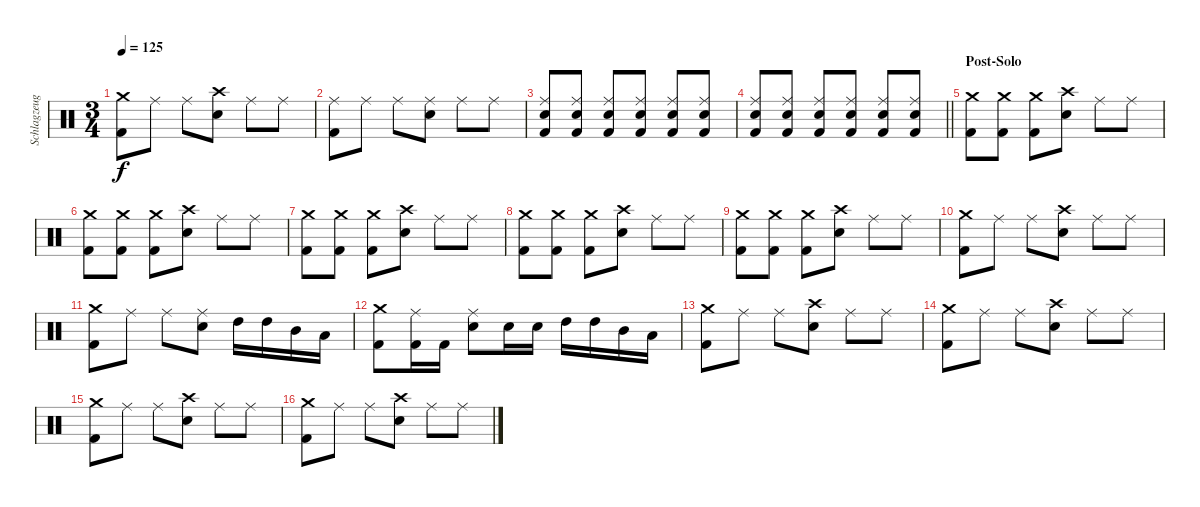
\track ("Schlagzeug" "Schlagzeug") {instrument percussion}
\staff {score}
\articulation defaults
\ts (3 4)
\tempo 125
\clef neutral
\ks c
("Crash medium (hit)" "Kick (hit) 2").8{dy f} "Ride (middle)".8 "Ride (middle)".8 ("Crash high (hit)" "Snare (hit) 2").8 "Ride (middle)".8 "Ride (middle)".8 |
("Ride (middle)" "Kick (hit) 2").8 "Ride (middle)".8 "Ride (middle)".8 ("Ride (middle)" "Snare (hit) 2").8 "Ride (middle)".8 "Ride (middle)".8 |
("Ride (middle)" "Snare (hit) 2" "Kick (hit) 2").8 ("Ride (middle)" "Snare (hit) 2" "Kick (hit) 2").8 ("Ride (middle)" "Snare (hit) 2" "Kick (hit) 2").8 ("Ride (middle)" "Snare (hit) 2" "Kick (hit) 2").8 ("Ride (middle)" "Snare (hit) 2" "Kick (hit) 2").8 ("Ride (middle)" "Snare (hit) 2" "Kick (hit) 2").8 |
\barLineRight lightlight
("Ride (middle)" "Snare (hit) 2" "Kick (hit) 2").8 ("Ride (middle)" "Snare (hit) 2" "Kick (hit) 2").8 ("Ride (middle)" "Snare (hit) 2" "Kick (hit) 2").8 ("Ride (middle)" "Snare (hit) 2" "Kick (hit) 2").8 ("Ride (middle)" "Snare (hit) 2" "Kick (hit) 2").8 ("Ride (middle)" "Snare (hit) 2" "Kick (hit) 2").8 |
\section ("" "Post-Solo")
("Crash medium (hit)" "Kick (hit) 2").8 ("Crash medium (hit)" "Kick (hit) 2").8 ("Crash medium (hit)" "Kick (hit) 2").8 ("Crash high (hit)" "Snare (hit) 2").8 "Ride (middle)".8 "Ride (middle)".8 |
("Crash medium (hit)" "Kick (hit) 2").8 ("Crash medium (hit)" "Kick (hit) 2").8 ("Crash medium (hit)" "Kick (hit) 2").8 ("Crash high (hit)" "Snare (hit) 2").8 "Ride (middle)".8 "Ride (middle)".8 |
("Crash medium (hit)" "Kick (hit) 2").8 ("Crash medium (hit)" "Kick (hit) 2").8 ("Crash medium (hit)" "Kick (hit) 2").8 ("Crash high (hit)" "Snare (hit) 2").8 "Ride (middle)".8 "Ride (middle)".8 |
("Crash medium (hit)" "Kick (hit) 2").8 ("Crash medium (hit)" "Kick (hit) 2").8 ("Crash medium (hit)" "Kick (hit) 2").8 ("Crash high (hit)" "Snare (hit) 2").8 "Ride (middle)".8 "Ride (middle)".8 |
("Crash medium (hit)" "Kick (hit) 2").8 ("Crash medium (hit)" "Kick (hit) 2").8 ("Crash medium (hit)" "Kick (hit) 2").8 ("Crash high (hit)" "Snare (hit) 2").8 "Ride (middle)".8 "Ride (middle)".8 |
("Crash medium (hit)" "Kick (hit) 2").8 "Ride (middle)".8 "Ride (middle)".8 ("Crash high (hit)" "Snare (hit) 2").8 "Ride (middle)".8 "Ride (middle)".8 |
("Crash medium (hit)" "Kick (hit) 2").8 "Ride (middle)".8 "Ride (middle)".8 ("Ride (middle)" "Snare (hit) 2").8 "High Tom (hit)".16 "High Tom (hit)".16 "Mid Tom (hit)".16 "Low Tom (hit)".16 |
("Crash medium (hit)" "Kick (hit) 2").8 ("Ride (middle)" "Kick (hit) 2").16 "Kick (hit) 2".16 ("Ride (middle)" "Snare (hit) 2").8 "Snare (hit) 2".16 "Snare (hit) 2".16 "High Tom (hit)".16 "High Tom (hit)".16 "Mid Tom (hit)".16 "Low Tom (hit)".16 |
("Crash medium (hit)" "Kick (hit) 2").8 "Ride (middle)".8 "Ride (middle)".8 ("Crash high (hit)" "Snare (hit) 2").8 "Ride (middle)".8 "Ride (middle)".8 |
("Crash medium (hit)" "Kick (hit) 2").8 "Ride (middle)".8 "Ride (middle)".8 ("Crash high (hit)" "Snare (hit) 2").8 "Ride (middle)".8 "Ride (middle)".8 |
("Crash medium (hit)" "Kick (hit) 2").8 "Ride (middle)".8 "Ride (middle)".8 ("Crash high (hit)" "Snare (hit) 2").8 "Ride (middle)".8 "Ride (middle)".8 |
("Crash medium (hit)" "Kick (hit) 2").8 "Ride (middle)".8 "Ride (middle)".8 ("Crash high (hit)" "Snare (hit) 2").8 "Ride (middle)".8 "Ride (middle)".8
